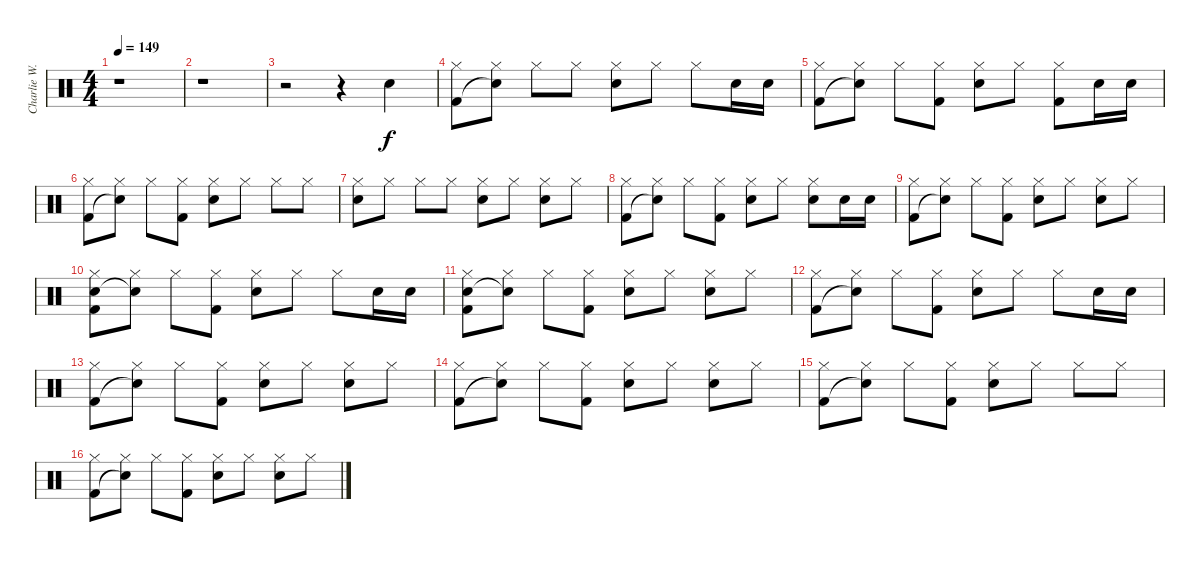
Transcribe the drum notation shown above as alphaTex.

\track ("Charlie W. drums" "Charlie W.") {instrument percussion}
\staff {score}
\articulation defaults
\ts (4 4)
\tempo 149
\clef neutral
\ks c
r.1{dy f} |
r.1 |
r.2 r.4 "Snare (hit) 2".4 |
("Hi-Hat (closed)" "Kick (hit) 2").8 ("Hi-Hat (closed)" "Snare (hit)"{t}).8 "Hi-Hat (closed)".8 "Hi-Hat (closed)".8 ("Hi-Hat (closed)" "Snare (hit) 2").8 "Hi-Hat (closed)".8 "Hi-Hat (closed)".8 "Snare (hit) 2".16 "Snare (hit) 2".16 |
("Hi-Hat (closed)" "Kick (hit) 2").8 ("Hi-Hat (closed)" "Snare (hit)"{t}).8 "Hi-Hat (closed)".8 ("Hi-Hat (closed)" "Kick (hit) 2").8 ("Hi-Hat (closed)" "Snare (hit) 2").8 "Hi-Hat (closed)".8 ("Hi-Hat (closed)" "Kick (hit) 2").8 "Snare (hit) 2".16 "Snare (hit) 2".16 |
("Hi-Hat (closed)" "Kick (hit) 2").8 ("Hi-Hat (closed)" "Snare (hit)"{t}).8 "Hi-Hat (closed)".8 ("Hi-Hat (closed)" "Kick (hit) 2").8 ("Hi-Hat (closed)" "Snare (hit) 2").8 "Hi-Hat (closed)".8 "Hi-Hat (closed)".8 "Hi-Hat (closed)".8 |
("Hi-Hat (closed)" "Snare (hit) 2").8 "Hi-Hat (closed)".8 "Hi-Hat (closed)".8 "Hi-Hat (closed)".8 ("Hi-Hat (closed)" "Snare (hit) 2").8 "Hi-Hat (closed)".8 ("Hi-Hat (closed)" "Snare (hit) 2").8 "Hi-Hat (closed)".8 |
("Hi-Hat (closed)" "Kick (hit) 2").8 ("Hi-Hat (closed)" "Snare (hit)"{t}).8 "Hi-Hat (closed)".8 ("Hi-Hat (closed)" "Kick (hit) 2").8 ("Hi-Hat (closed)" "Snare (hit) 2").8 "Hi-Hat (closed)".8 ("Hi-Hat (closed)" "Snare (hit) 2").8 "Snare (hit) 2".16 "Snare (hit) 2".16 |
("Hi-Hat (closed)" "Kick (hit) 2").8 ("Hi-Hat (closed)" "Snare (hit)"{t}).8 "Hi-Hat (closed)".8 ("Hi-Hat (closed)" "Kick (hit) 2").8 ("Hi-Hat (closed)" "Snare (hit) 2").8 "Hi-Hat (closed)".8 ("Hi-Hat (closed)" "Snare (hit) 2").8 "Hi-Hat (closed)".8 |
("Hi-Hat (closed)" "Snare (hit) 2" "Kick (hit) 2").8 ("Hi-Hat (closed)" "Snare (hit)"{t}).8 "Hi-Hat (closed)".8 ("Hi-Hat (closed)" "Kick (hit) 2").8 ("Hi-Hat (closed)" "Snare (hit) 2").8 "Hi-Hat (closed)".8 "Hi-Hat (closed)".8 "Snare (hit) 2".16 "Snare (hit) 2".16 |
("Hi-Hat (closed)" "Snare (hit) 2" "Kick (hit) 2").8 ("Hi-Hat (closed)" "Snare (hit)"{t}).8 "Hi-Hat (closed)".8 ("Hi-Hat (closed)" "Kick (hit) 2").8 ("Hi-Hat (closed)" "Snare (hit) 2").8 "Hi-Hat (closed)".8 ("Hi-Hat (closed)" "Snare (hit) 2").8 "Hi-Hat (closed)".8 |
("Hi-Hat (closed)" "Kick (hit) 2").8 ("Hi-Hat (closed)" "Snare (hit)"{t}).8 "Hi-Hat (closed)".8 ("Hi-Hat (closed)" "Kick (hit) 2").8 ("Hi-Hat (closed)" "Snare (hit) 2").8 "Hi-Hat (closed)".8 "Hi-Hat (closed)".8 "Snare (hit) 2".16 "Snare (hit) 2".16 |
("Hi-Hat (closed)" "Kick (hit) 2").8 ("Hi-Hat (closed)" "Snare (hit)"{t}).8 "Hi-Hat (closed)".8 ("Hi-Hat (closed)" "Kick (hit) 2").8 ("Hi-Hat (closed)" "Snare (hit) 2").8 "Hi-Hat (closed)".8 ("Hi-Hat (closed)" "Snare (hit) 2").8 "Hi-Hat (closed)".8 |
("Hi-Hat (closed)" "Kick (hit) 2").8 ("Hi-Hat (closed)" "Snare (hit)"{t}).8 "Hi-Hat (closed)".8 ("Hi-Hat (closed)" "Kick (hit) 2").8 ("Hi-Hat (closed)" "Snare (hit) 2").8 "Hi-Hat (closed)".8 ("Hi-Hat (closed)" "Snare (hit) 2").8 "Hi-Hat (closed)".8 |
("Hi-Hat (closed)" "Kick (hit) 2").8 ("Hi-Hat (closed)" "Snare (hit)"{t}).8 "Hi-Hat (closed)".8 ("Hi-Hat (closed)" "Kick (hit) 2").8 ("Hi-Hat (closed)" "Snare (hit) 2").8 "Hi-Hat (closed)".8 "Hi-Hat (closed)".8 "Hi-Hat (closed)".8 |
("Hi-Hat (closed)" "Kick (hit) 2").8 ("Hi-Hat (closed)" "Snare (hit)"{t}).8 "Hi-Hat (closed)".8 ("Hi-Hat (closed)" "Kick (hit) 2").8 ("Hi-Hat (closed)" "Snare (hit) 2").8 "Hi-Hat (closed)".8 ("Hi-Hat (closed)" "Snare (hit) 2").8 "Hi-Hat (closed)".8
